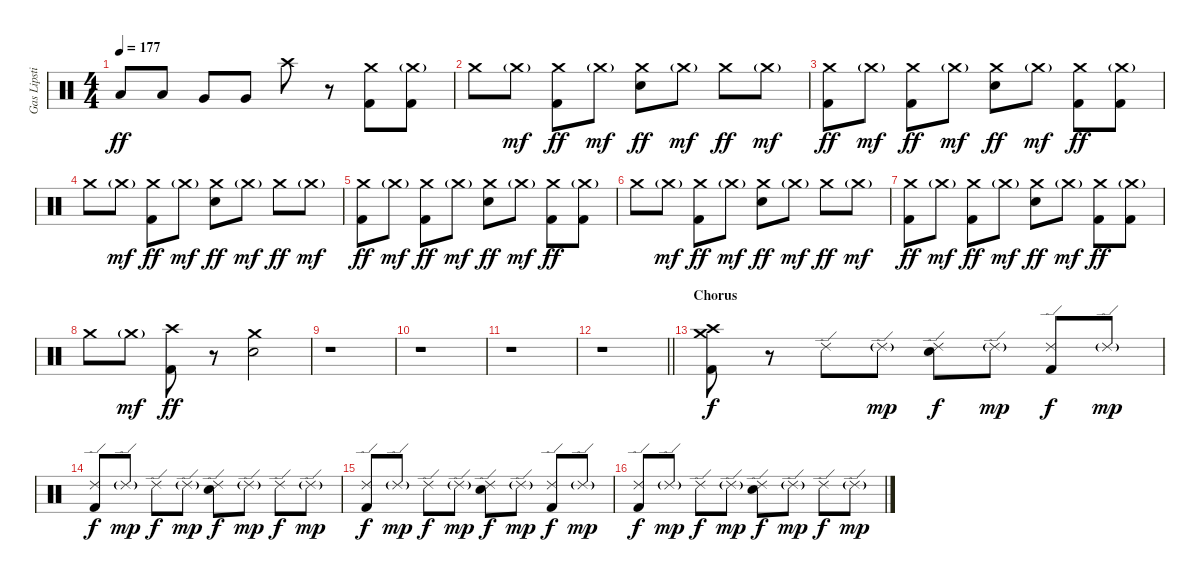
\track ("Gas Lipstick (Drums)" "Gas Lipsti") {instrument percussion}
\staff {score}
\articulation defaults
\ts (4 4)
\tempo 177
\clef neutral
\ks c "Low Tom (hit)".8{dy ff} "Low Tom (hit)".8 "Very Low Tom (hit)".8 "Very Low Tom (hit)".8 "Crash high (hit)".8
r.8 ("Crash medium (hit)" "Kick (hit) 2").8 ("Crash medium (hit)"{g} "Kick (hit) 2").8 |
"Crash medium (hit)".8 "Crash medium (hit)"{g}.8{dy mf} ("Crash medium (hit)" "Kick (hit) 2").8{dy ff} "Crash medium (hit)"{g}.8{dy mf} ("Crash medium (hit)" "Snare (hit) 2").8{dy ff} "Crash medium (hit)"{g}.8{dy mf} "Crash medium (hit)".8{dy ff} "Crash medium (hit)"{g}.8{dy mf} |
("Crash medium (hit)" "Kick (hit) 2").8{dy ff} "Crash medium (hit)"{g}.8{dy mf} ("Crash medium (hit)" "Kick (hit) 2").8{dy ff} "Crash medium (hit)"{g}.8{dy mf} ("Crash medium (hit)" "Snare (hit) 2").8{dy ff} "Crash medium (hit)"{g}.8{dy mf} ("Crash medium (hit)" "Kick (hit) 2").8{dy ff} ("Crash medium (hit)"{g} "Kick (hit) 2").8 |
"Crash medium (hit)".8 "Crash medium (hit)"{g}.8{dy mf} ("Crash medium (hit)" "Kick (hit) 2").8{dy ff} "Crash medium (hit)"{g}.8{dy mf} ("Crash medium (hit)" "Snare (hit) 2").8{dy ff} "Crash medium (hit)"{g}.8{dy mf} "Crash medium (hit)".8{dy ff} "Crash medium (hit)"{g}.8{dy mf} |
("Crash medium (hit)" "Kick (hit) 2").8{dy ff} "Crash medium (hit)"{g}.8{dy mf} ("Crash medium (hit)" "Kick (hit) 2").8{dy ff} "Crash medium (hit)"{g}.8{dy mf} ("Crash medium (hit)" "Snare (hit) 2").8{dy ff} "Crash medium (hit)"{g}.8{dy mf} ("Crash medium (hit)" "Kick (hit) 2").8{dy ff} ("Crash medium (hit)"{g} "Kick (hit) 2").8 |
"Crash medium (hit)".8 "Crash medium (hit)"{g}.8{dy mf} ("Crash medium (hit)" "Kick (hit) 2").8{dy ff} "Crash medium (hit)"{g}.8{dy mf} ("Crash medium (hit)" "Snare (hit) 2").8{dy ff} "Crash medium (hit)"{g}.8{dy mf} "Crash medium (hit)".8{dy ff} "Crash medium (hit)"{g}.8{dy mf} |
("Crash medium (hit)" "Kick (hit) 2").8{dy ff} "Crash medium (hit)"{g}.8{dy mf} ("Crash medium (hit)" "Kick (hit) 2").8{dy ff} "Crash medium (hit)"{g}.8{dy mf} ("Crash medium (hit)" "Snare (hit) 2").8{dy ff} "Crash medium (hit)"{g}.8{dy mf} ("Crash medium (hit)" "Kick (hit) 2").8{dy ff} ("Crash medium (hit)"{g} "Kick (hit) 2").8 |
"Crash medium (hit)".8 "Crash medium (hit)"{g}.8{dy mf} ("Crash high (hit)" "Kick (hit) 2").8{dy ff} r.8 ("Crash medium (hit)" "Snare (hit) 2").2 |
r.1 |
r.1 |
r.1 |
\barLineRight lightlight
r.1 |
\section ("" "Chorus")
("Crash medium (hit)" "Crash high (hit)" "Kick (hit) 2").8{dy f} r.8 "Ride (edge) 2".8 "Ride (edge) 2"{g}.8{dy mp} ("Ride (edge) 2" "Snare (hit) 2").8{dy f} "Ride (edge) 2"{g}.8{dy mp} ("Ride (edge) 2" "Kick (hit) 2").8{dy f} "Ride (edge) 2"{g}.8{dy mp} |
("Ride (edge) 2" "Kick (hit) 2").8{dy f} "Ride (edge) 2"{g}.8{dy mp} "Ride (edge) 2".8{dy f} "Ride (edge) 2"{g}.8{dy mp} ("Ride (edge) 2" "Snare (hit) 2").8{dy f} "Ride (edge) 2"{g}.8{dy mp} "Ride (edge) 2".8{dy f} "Ride (edge) 2"{g}.8{dy mp} |
("Ride (edge) 2" "Kick (hit) 2").8{dy f} "Ride (edge) 2"{g}.8{dy mp} "Ride (edge) 2".8{dy f} "Ride (edge) 2"{g}.8{dy mp} ("Ride (edge) 2" "Snare (hit) 2").8{dy f} "Ride (edge) 2"{g}.8{dy mp} ("Ride (edge) 2" "Kick (hit) 2").8{dy f} "Ride (edge) 2"{g}.8{dy mp} |
("Ride (edge) 2" "Kick (hit) 2").8{dy f} "Ride (edge) 2"{g}.8{dy mp} "Ride (edge) 2".8{dy f} "Ride (edge) 2"{g}.8{dy mp} ("Ride (edge) 2" "Snare (hit) 2").8{dy f} "Ride (edge) 2"{g}.8{dy mp} "Ride (edge) 2".8{dy f} "Ride (edge) 2"{g}.8{dy mp}
